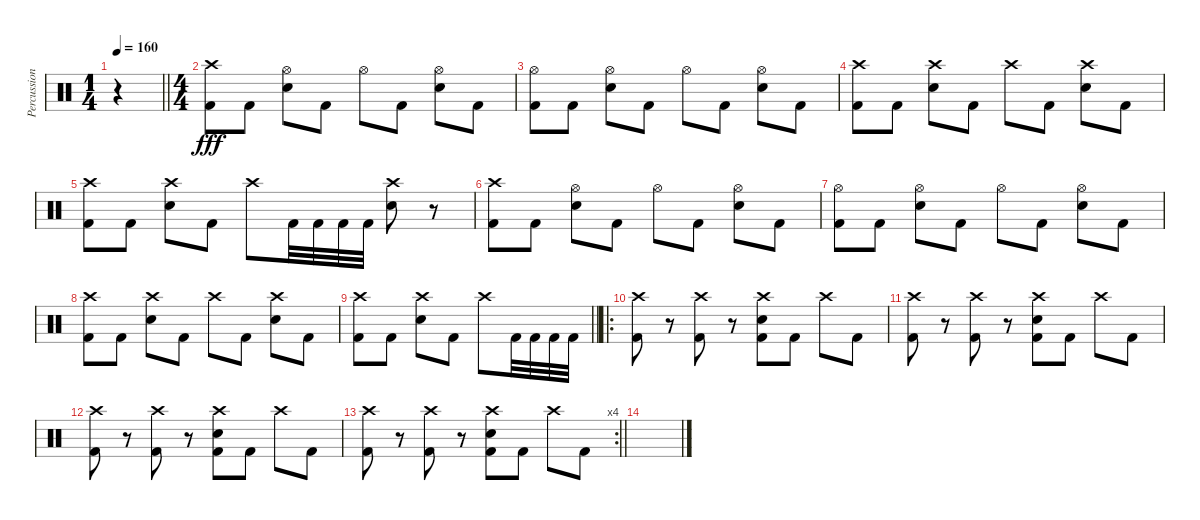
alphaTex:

\track ("Percussion" "Percussion") {instrument percussion}
\staff {score}
\articulation defaults
\ts (1 4)
\tempo 160
\clef neutral
\barLineRight lightlight
\ks c
r.4{dy fff} |
\ts (4 4)
\section ("" "")
("Crash high (hit)" "Kick (hit) 2").8 "Kick (hit) 2".8 ("Hi-Hat (open)" "Snare (hit) 2").8 "Kick (hit) 2".8 "Hi-Hat (open)".8 "Kick (hit) 2".8 ("Hi-Hat (open)" "Snare (hit) 2").8 "Kick (hit) 2".8 |
("Hi-Hat (open)" "Kick (hit) 2").8 "Kick (hit) 2".8 ("Hi-Hat (open)" "Snare (hit) 2").8 "Kick (hit) 2".8 "Hi-Hat (open)".8 "Kick (hit) 2".8 ("Hi-Hat (open)" "Snare (hit) 2").8 "Kick (hit) 2".8 |
("Crash high (hit)" "Kick (hit) 2").8 "Kick (hit) 2".8 ("Crash high (hit)" "Snare (hit) 2").8 "Kick (hit) 2".8 "Crash high (hit)".8 "Kick (hit) 2".8 ("Crash high (hit)" "Snare (hit) 2").8 "Kick (hit) 2".8 |
("Crash high (hit)" "Kick (hit) 2").8 "Kick (hit) 2".8 ("Crash high (hit)" "Snare (hit) 2").8 "Kick (hit) 2".8 "Crash high (hit)".8 "Kick (hit) 2".32 "Kick (hit) 2".32 "Kick (hit) 2".32 "Kick (hit) 2".32 ("Crash high (hit)" "Snare (hit) 2").8 r.8 |
("Crash high (hit)" "Kick (hit) 2").8 "Kick (hit) 2".8 ("Hi-Hat (open)" "Snare (hit) 2").8 "Kick (hit) 2".8 "Hi-Hat (open)".8 "Kick (hit) 2".8 ("Hi-Hat (open)" "Snare (hit) 2").8 "Kick (hit) 2".8 |
("Hi-Hat (open)" "Kick (hit) 2").8 "Kick (hit) 2".8 ("Hi-Hat (open)" "Snare (hit) 2").8 "Kick (hit) 2".8 "Hi-Hat (open)".8 "Kick (hit) 2".8 ("Hi-Hat (open)" "Snare (hit) 2").8 "Kick (hit) 2".8 |
("Crash high (hit)" "Kick (hit) 2").8 "Kick (hit) 2".8 ("Crash high (hit)" "Snare (hit) 2").8 "Kick (hit) 2".8 "Crash high (hit)".8 "Kick (hit) 2".8 ("Crash high (hit)" "Snare (hit) 2").8 "Kick (hit) 2".8 |
\barLineRight lightlight
("Crash high (hit)" "Kick (hit) 2").8 "Kick (hit) 2".8 ("Crash high (hit)" "Snare (hit) 2").8 "Kick (hit) 2".8 "Crash high (hit)".8 "Kick (hit) 2".32 "Kick (hit) 2".32 "Kick (hit) 2".32 "Kick (hit) 2".32 |
\ro
\section ("" "")
("Crash high (hit)" "Kick (hit) 2").8 r.8 ("Crash high (hit)" "Kick (hit) 2").8 r.8 ("Crash high (hit)" "Snare (hit) 2" "Kick (hit) 2").8 "Kick (hit) 2".8 "Crash high (hit)".8 "Kick (hit) 2".8 |
("Crash high (hit)" "Kick (hit) 2").8 r.8 ("Crash high (hit)" "Kick (hit) 2").8 r.8 ("Crash high (hit)" "Snare (hit) 2" "Kick (hit) 2").8 "Kick (hit) 2".8 "Crash high (hit)".8 "Kick (hit) 2".8 |
("Crash high (hit)" "Kick (hit) 2").8 r.8 ("Crash high (hit)" "Kick (hit) 2").8 r.8 ("Crash high (hit)" "Snare (hit) 2" "Kick (hit) 2").8 "Kick (hit) 2".8 "Crash high (hit)".8 "Kick (hit) 2".8 |
\rc 4
\barLineRight lightlight
("Crash high (hit)" "Kick (hit) 2").8 r.8 ("Crash high (hit)" "Kick (hit) 2").8 r.8 ("Crash high (hit)" "Snare (hit) 2" "Kick (hit) 2").8 "Kick (hit) 2".8 "Crash high (hit)".8 "Kick (hit) 2".8 |
\section ("" "")
